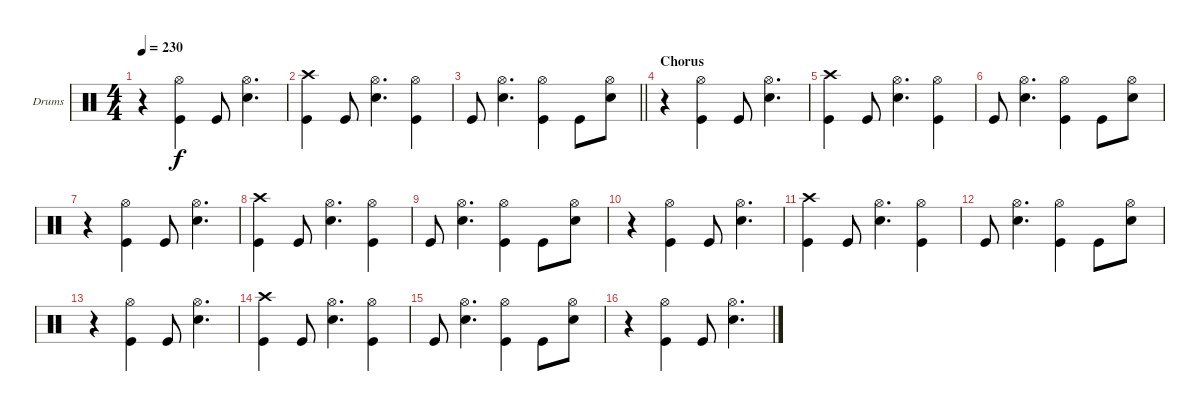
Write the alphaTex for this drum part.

\bracketExtendMode groupsimilarinstruments
\firstSystemTrackNameOrientation horizontal
\otherSystemsTrackNameOrientation horizontal
\track ("Drumkit" "Drums") {instrument percussion}
\staff {score}
\articulation defaults
\ts (4 4)
\tempo 230
\clef neutral
\ks c
r.4{dy f} ("Hi-Hat (open)" "Kick (hit)").4 "Kick (hit)".8 ("Hi-Hat (open)" "Snare (hit) 2").4{d} |
("Crash high (hit)" "Kick (hit)").4 "Kick (hit)".8 ("Hi-Hat (open)" "Snare (hit) 2").4{d} ("Hi-Hat (open)" "Kick (hit)").4 |
\barLineRight lightlight "Kick (hit)".8
("Hi-Hat (open)" "Snare (hit) 2").4{d} ("Hi-Hat (open)" "Kick (hit)").4 "Kick (hit)".8 ("Hi-Hat (open)" "Snare (hit) 2").8 |
\section ("" "Chorus")
r.4 ("Hi-Hat (open)" "Kick (hit)").4 "Kick (hit)".8 ("Hi-Hat (open)" "Snare (hit) 2").4{d} |
("Crash high (hit)" "Kick (hit)").4 "Kick (hit)".8 ("Hi-Hat (open)" "Snare (hit) 2").4{d} ("Hi-Hat (open)" "Kick (hit)").4 |
"Kick (hit)".8 ("Hi-Hat (open)" "Snare (hit) 2").4{d} ("Hi-Hat (open)" "Kick (hit)").4 "Kick (hit)".8 ("Hi-Hat (open)" "Snare (hit) 2").8 |
r.4 ("Hi-Hat (open)" "Kick (hit)").4 "Kick (hit)".8 ("Hi-Hat (open)" "Snare (hit) 2").4{d} |
("Crash high (hit)" "Kick (hit)").4 "Kick (hit)".8 ("Hi-Hat (open)" "Snare (hit) 2").4{d} ("Hi-Hat (open)" "Kick (hit)").4 |
"Kick (hit)".8 ("Hi-Hat (open)" "Snare (hit) 2").4{d} ("Hi-Hat (open)" "Kick (hit)").4 "Kick (hit)".8 ("Hi-Hat (open)" "Snare (hit) 2").8 |
r.4 ("Hi-Hat (open)" "Kick (hit)").4 "Kick (hit)".8 ("Hi-Hat (open)" "Snare (hit) 2").4{d} |
("Crash high (hit)" "Kick (hit)").4 "Kick (hit)".8 ("Hi-Hat (open)" "Snare (hit) 2").4{d} ("Hi-Hat (open)" "Kick (hit)").4 |
"Kick (hit)".8 ("Hi-Hat (open)" "Snare (hit) 2").4{d} ("Hi-Hat (open)" "Kick (hit)").4 "Kick (hit)".8 ("Hi-Hat (open)" "Snare (hit) 2").8 |
r.4 ("Hi-Hat (open)" "Kick (hit)").4 "Kick (hit)".8 ("Hi-Hat (open)" "Snare (hit) 2").4{d} |
("Crash high (hit)" "Kick (hit)").4 "Kick (hit)".8 ("Hi-Hat (open)" "Snare (hit) 2").4{d} ("Hi-Hat (open)" "Kick (hit)").4 |
"Kick (hit)".8 ("Hi-Hat (open)" "Snare (hit) 2").4{d} ("Hi-Hat (open)" "Kick (hit)").4 "Kick (hit)".8 ("Hi-Hat (open)" "Snare (hit) 2").8 |
r.4 ("Hi-Hat (open)" "Kick (hit)").4 "Kick (hit)".8 ("Hi-Hat (open)" "Snare (hit) 2").4{d}
